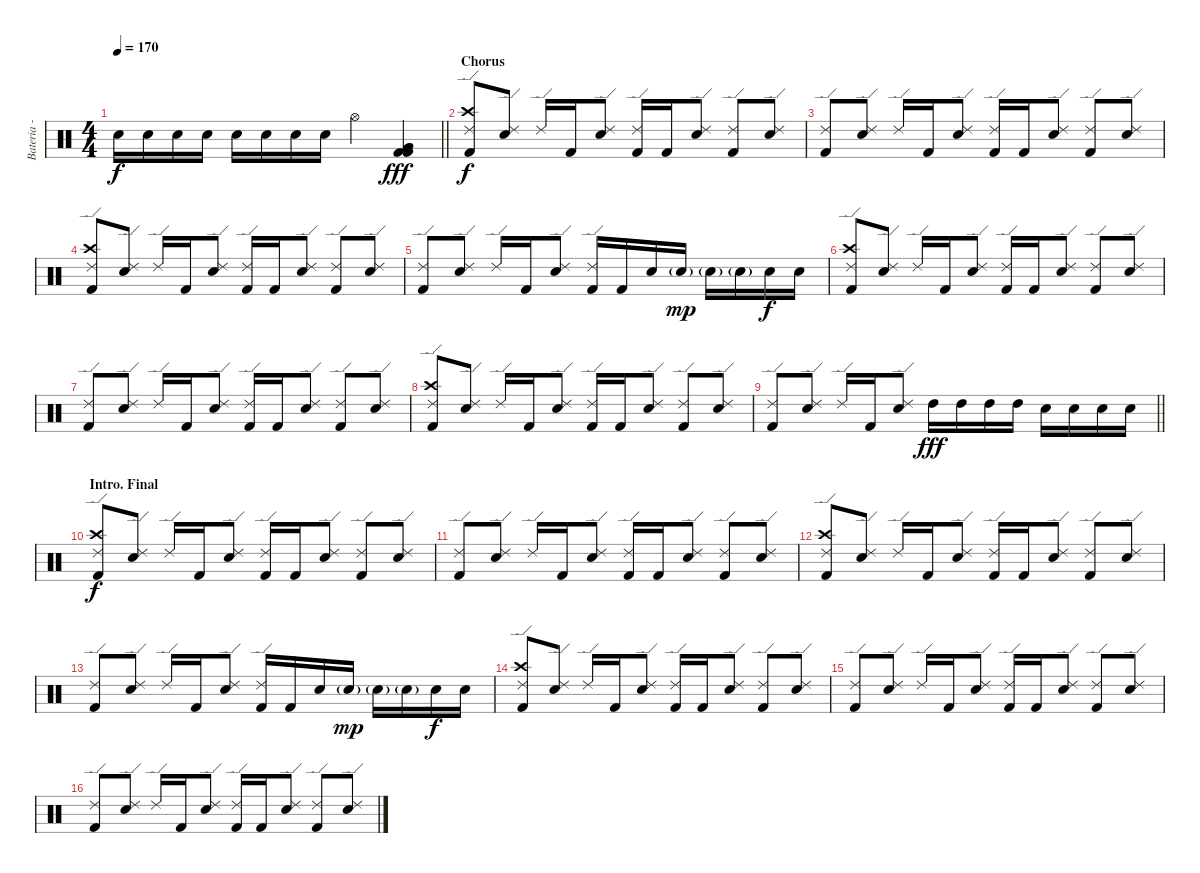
\track ("Bateria - Larzon" "Bateria - ") {instrument percussion}
\staff {score}
\articulation defaults
\ts (4 4)
\tempo 170
\clef neutral
\barLineRight lightlight
\ks c "Snare (hit) 2".16{dy f} "Snare (hit) 2".16 "Snare (hit) 2".16 "Snare (hit) 2".16 "Snare (hit) 2".16 "Snare (hit) 2".16 "Snare (hit) 2".16 "Snare (hit) 2".16 "Hi-Hat (open)".4
("Kick (hit) 2" "Very Low Tom (hit)" "Very Low Tom (hit)" "Kick (hit) 2").4{dy fff} |
\section ("" "Chorus")
("Kick (hit) 2" "Crash high (hit)" "Ride (edge) 2").8{dy f} ("Snare (hit) 2" "Ride (edge) 2").8 "Ride (edge) 2".16 "Kick (hit) 2".16 ("Snare (hit) 2" "Ride (edge) 2").8 ("Kick (hit) 2" "Ride (edge) 2").16 "Kick (hit) 2".16 ("Snare (hit) 2" "Ride (edge) 2").8 ("Kick (hit) 2" "Ride (edge) 2").8 ("Snare (hit) 2" "Ride (edge) 2").8 |
("Kick (hit) 2" "Ride (edge) 2").8 ("Snare (hit) 2" "Ride (edge) 2").8 "Ride (edge) 2".16 "Kick (hit) 2".16 ("Snare (hit) 2" "Ride (edge) 2").8 ("Kick (hit) 2" "Ride (edge) 2").16 "Kick (hit) 2".16 ("Snare (hit) 2" "Ride (edge) 2").8 ("Kick (hit) 2" "Ride (edge) 2").8 ("Snare (hit) 2" "Ride (edge) 2").8 |
("Kick (hit) 2" "Crash high (hit)" "Ride (edge) 2").8 ("Snare (hit) 2" "Ride (edge) 2").8 "Ride (edge) 2".16 "Kick (hit) 2".16 ("Snare (hit) 2" "Ride (edge) 2").8 ("Kick (hit) 2" "Ride (edge) 2").16 "Kick (hit) 2".16 ("Snare (hit) 2" "Ride (edge) 2").8 ("Kick (hit) 2" "Ride (edge) 2").8 ("Snare (hit) 2" "Ride (edge) 2").8 |
("Kick (hit) 2" "Ride (edge) 2").8 ("Snare (hit) 2" "Ride (edge) 2").8 "Ride (edge) 2".16 "Kick (hit) 2".16 ("Snare (hit) 2" "Ride (edge) 2").8 ("Kick (hit) 2" "Ride (edge) 2").16 "Kick (hit) 2".16 "Snare (hit) 2".16 "Snare (hit) 2"{g}.16{dy mp} "Snare (hit) 2"{g}.16 "Snare (hit) 2"{g}.16 "Snare (hit) 2".16{dy f} "Snare (hit) 2".16 |
("Kick (hit) 2" "Crash high (hit)" "Ride (edge) 2").8 ("Snare (hit) 2" "Ride (edge) 2").8 "Ride (edge) 2".16 "Kick (hit) 2".16 ("Snare (hit) 2" "Ride (edge) 2").8 ("Kick (hit) 2" "Ride (edge) 2").16 "Kick (hit) 2".16 ("Snare (hit) 2" "Ride (edge) 2").8 ("Kick (hit) 2" "Ride (edge) 2").8 ("Snare (hit) 2" "Ride (edge) 2").8 |
("Kick (hit) 2" "Ride (edge) 2").8 ("Snare (hit) 2" "Ride (edge) 2").8 "Ride (edge) 2".16 "Kick (hit) 2".16 ("Snare (hit) 2" "Ride (edge) 2").8 ("Kick (hit) 2" "Ride (edge) 2").16 "Kick (hit) 2".16 ("Snare (hit) 2" "Ride (edge) 2").8 ("Kick (hit) 2" "Ride (edge) 2").8 ("Snare (hit) 2" "Ride (edge) 2").8 |
("Kick (hit) 2" "Crash high (hit)" "Ride (edge) 2").8 ("Snare (hit) 2" "Ride (edge) 2").8 "Ride (edge) 2".16 "Kick (hit) 2".16 ("Snare (hit) 2" "Ride (edge) 2").8 ("Kick (hit) 2" "Ride (edge) 2").16 "Kick (hit) 2".16 ("Snare (hit) 2" "Ride (edge) 2").8 ("Kick (hit) 2" "Ride (edge) 2").8 ("Snare (hit) 2" "Ride (edge) 2").8 |
\barLineRight lightlight
("Kick (hit) 2" "Ride (edge) 2").8 ("Snare (hit) 2" "Ride (edge) 2").8 "Ride (edge) 2".16 "Kick (hit) 2".16 ("Snare (hit) 2" "Ride (edge) 2").8 "High Tom (hit)".16{dy fff} "High Tom (hit)".16 "High Tom (hit)".16 "High Tom (hit)".16 "Snare (hit) 2".16 "Snare (hit) 2".16 "Snare (hit) 2".16 "Snare (hit) 2".16 |
\section ("" "Intro. Final")
("Kick (hit) 2" "Crash high (hit)" "Ride (edge) 2").8{dy f} ("Snare (hit) 2" "Ride (edge) 2").8 "Ride (edge) 2".16 "Kick (hit) 2".16 ("Snare (hit) 2" "Ride (edge) 2").8 ("Kick (hit) 2" "Ride (edge) 2").16 "Kick (hit) 2".16 ("Snare (hit) 2" "Ride (edge) 2").8 ("Kick (hit) 2" "Ride (edge) 2").8 ("Snare (hit) 2" "Ride (edge) 2").8 |
("Kick (hit) 2" "Ride (edge) 2").8 ("Snare (hit) 2" "Ride (edge) 2").8 "Ride (edge) 2".16 "Kick (hit) 2".16 ("Snare (hit) 2" "Ride (edge) 2").8 ("Kick (hit) 2" "Ride (edge) 2").16 "Kick (hit) 2".16 ("Snare (hit) 2" "Ride (edge) 2").8 ("Kick (hit) 2" "Ride (edge) 2").8 ("Snare (hit) 2" "Ride (edge) 2").8 |
("Kick (hit) 2" "Crash high (hit)" "Ride (edge) 2").8 ("Snare (hit) 2" "Ride (edge) 2").8 "Ride (edge) 2".16 "Kick (hit) 2".16 ("Snare (hit) 2" "Ride (edge) 2").8 ("Kick (hit) 2" "Ride (edge) 2").16 "Kick (hit) 2".16 ("Snare (hit) 2" "Ride (edge) 2").8 ("Kick (hit) 2" "Ride (edge) 2").8 ("Snare (hit) 2" "Ride (edge) 2").8 |
("Kick (hit) 2" "Ride (edge) 2").8 ("Snare (hit) 2" "Ride (edge) 2").8 "Ride (edge) 2".16 "Kick (hit) 2".16 ("Snare (hit) 2" "Ride (edge) 2").8 ("Kick (hit) 2" "Ride (edge) 2").16 "Kick (hit) 2".16 "Snare (hit) 2".16 "Snare (hit) 2"{g}.16{dy mp} "Snare (hit) 2"{g}.16 "Snare (hit) 2"{g}.16 "Snare (hit) 2".16{dy f} "Snare (hit) 2".16 |
("Kick (hit) 2" "Crash high (hit)" "Ride (edge) 2").8 ("Snare (hit) 2" "Ride (edge) 2").8 "Ride (edge) 2".16 "Kick (hit) 2".16 ("Snare (hit) 2" "Ride (edge) 2").8 ("Kick (hit) 2" "Ride (edge) 2").16 "Kick (hit) 2".16 ("Snare (hit) 2" "Ride (edge) 2").8 ("Kick (hit) 2" "Ride (edge) 2").8 ("Snare (hit) 2" "Ride (edge) 2").8 |
("Kick (hit) 2" "Ride (edge) 2").8 ("Snare (hit) 2" "Ride (edge) 2").8 "Ride (edge) 2".16 "Kick (hit) 2".16 ("Snare (hit) 2" "Ride (edge) 2").8 ("Kick (hit) 2" "Ride (edge) 2").16 "Kick (hit) 2".16 ("Snare (hit) 2" "Ride (edge) 2").8 ("Kick (hit) 2" "Ride (edge) 2").8 ("Snare (hit) 2" "Ride (edge) 2").8 |
("Kick (hit) 2" "Ride (edge) 2").8 ("Snare (hit) 2" "Ride (edge) 2").8 "Ride (edge) 2".16 "Kick (hit) 2".16 ("Snare (hit) 2" "Ride (edge) 2").8 ("Kick (hit) 2" "Ride (edge) 2").16 "Kick (hit) 2".16 ("Snare (hit) 2" "Ride (edge) 2").8 ("Kick (hit) 2" "Ride (edge) 2").8 ("Snare (hit) 2" "Ride (edge) 2").8
